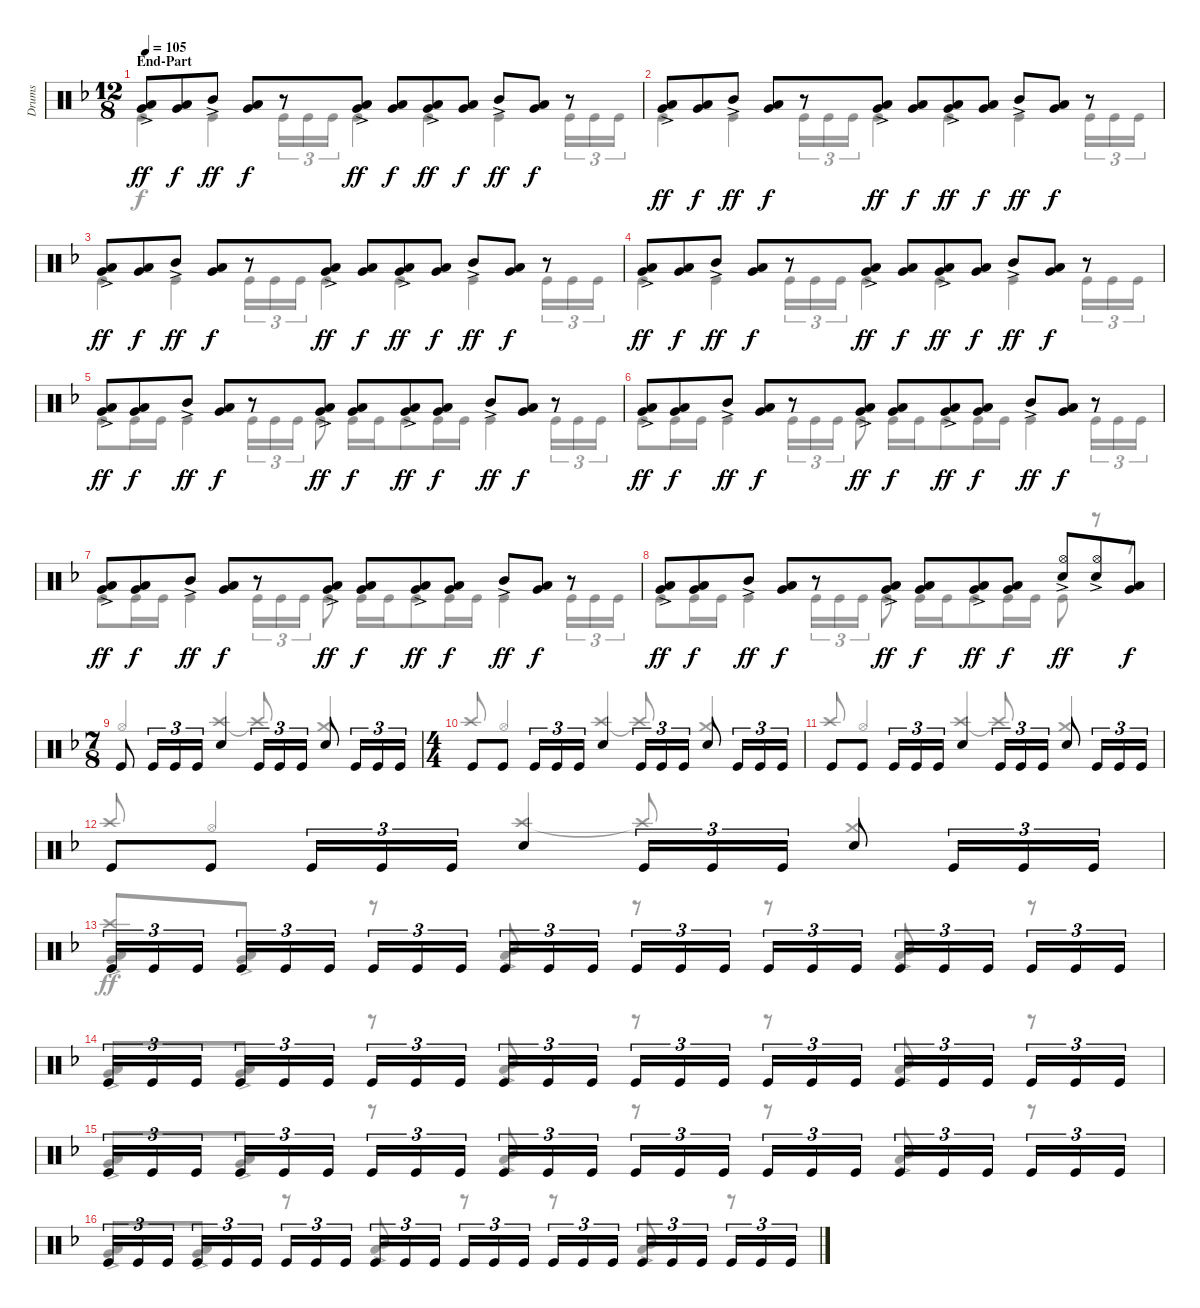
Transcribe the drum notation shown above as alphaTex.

\track ("Drums" "Drums") {instrument percussion}
\staff {score}
\articulation defaults
\voice
\ts (12 8)
\section ("" "End-Part")
\tempo 105
\clef neutral
\ks dminor
("Low Tom (hit)"{ac} "Very Low Tom (hit)").8{dy ff volume 8} ("Low Tom (hit)" "Very Low Tom (hit)").8{dy f} "Mid Tom (hit)"{ac}.8{dy ff} ("Very Low Tom (hit)" "Low Tom (hit)").8{dy f} r.8 ("Low Tom (hit)" "Very Low Tom (hit)"{ac}).8{dy ff} ("Low Tom (hit)" "Very Low Tom (hit)").8{dy f} ("Low Tom (hit)" "Very Low Tom (hit)"{ac}).8{dy ff} ("Low Tom (hit)" "Very Low Tom (hit)").8{dy f} "Mid Tom (hit)"{ac}.8{dy ff} ("Low Tom (hit)" "Very Low Tom (hit)").8{dy f} r.8 |
("Low Tom (hit)" "Very Low Tom (hit)"{ac}).8{dy ff} ("Low Tom (hit)" "Very Low Tom (hit)").8{dy f} "Mid Tom (hit)"{ac}.8{dy ff} ("Very Low Tom (hit)" "Low Tom (hit)").8{dy f} r.8 ("Low Tom (hit)" "Very Low Tom (hit)"{ac}).8{dy ff} ("Low Tom (hit)" "Very Low Tom (hit)").8{dy f} ("Low Tom (hit)" "Very Low Tom (hit)"{ac}).8{dy ff} ("Low Tom (hit)" "Very Low Tom (hit)").8{dy f} "Mid Tom (hit)"{ac}.8{dy ff} ("Low Tom (hit)" "Very Low Tom (hit)").8{dy f} r.8 |
("Low Tom (hit)" "Very Low Tom (hit)"{ac}).8{dy ff volume 13} ("Low Tom (hit)" "Very Low Tom (hit)").8{dy f} "Mid Tom (hit)"{ac}.8{dy ff} ("Very Low Tom (hit)" "Low Tom (hit)").8{dy f} r.8 ("Low Tom (hit)" "Very Low Tom (hit)"{ac}).8{dy ff} ("Low Tom (hit)" "Very Low Tom (hit)").8{dy f} ("Low Tom (hit)" "Very Low Tom (hit)"{ac}).8{dy ff} ("Low Tom (hit)" "Very Low Tom (hit)").8{dy f} "Mid Tom (hit)"{ac}.8{dy ff} ("Low Tom (hit)" "Very Low Tom (hit)").8{dy f} r.8 |
("Low Tom (hit)" "Very Low Tom (hit)"{ac}).8{dy ff} ("Low Tom (hit)" "Very Low Tom (hit)").8{dy f} "Mid Tom (hit)"{ac}.8{dy ff} ("Very Low Tom (hit)" "Low Tom (hit)").8{dy f} r.8 ("Low Tom (hit)" "Very Low Tom (hit)"{ac}).8{dy ff} ("Low Tom (hit)" "Very Low Tom (hit)").8{dy f} ("Low Tom (hit)" "Very Low Tom (hit)"{ac}).8{dy ff} ("Low Tom (hit)" "Very Low Tom (hit)").8{dy f} "Mid Tom (hit)"{ac}.8{dy ff} ("Low Tom (hit)" "Very Low Tom (hit)").8{dy f} r.8 |
("Low Tom (hit)" "Very Low Tom (hit)"{ac}).8{dy ff} ("Low Tom (hit)" "Very Low Tom (hit)").8{dy f} "Mid Tom (hit)"{ac}.8{dy ff} ("Very Low Tom (hit)" "Low Tom (hit)").8{dy f} r.8 ("Low Tom (hit)" "Very Low Tom (hit)"{ac}).8{dy ff} ("Low Tom (hit)" "Very Low Tom (hit)").8{dy f} ("Low Tom (hit)" "Very Low Tom (hit)"{ac}).8{dy ff} ("Low Tom (hit)" "Very Low Tom (hit)").8{dy f} "Mid Tom (hit)"{ac}.8{dy ff} ("Low Tom (hit)" "Very Low Tom (hit)").8{dy f} r.8 |
("Low Tom (hit)" "Very Low Tom (hit)"{ac}).8{dy ff} ("Low Tom (hit)" "Very Low Tom (hit)").8{dy f} "Mid Tom (hit)"{ac}.8{dy ff} ("Very Low Tom (hit)" "Low Tom (hit)").8{dy f} r.8 ("Low Tom (hit)" "Very Low Tom (hit)"{ac}).8{dy ff} ("Low Tom (hit)" "Very Low Tom (hit)").8{dy f} ("Low Tom (hit)" "Very Low Tom (hit)"{ac}).8{dy ff} ("Low Tom (hit)" "Very Low Tom (hit)").8{dy f} "Mid Tom (hit)"{ac}.8{dy ff} ("Low Tom (hit)" "Very Low Tom (hit)").8{dy f} r.8 |
("Low Tom (hit)" "Very Low Tom (hit)"{ac}).8{dy ff volume 16} ("Low Tom (hit)" "Very Low Tom (hit)").8{dy f} "Mid Tom (hit)"{ac}.8{dy ff} ("Very Low Tom (hit)" "Low Tom (hit)").8{dy f} r.8 ("Low Tom (hit)" "Very Low Tom (hit)"{ac}).8{dy ff} ("Low Tom (hit)" "Very Low Tom (hit)").8{dy f} ("Low Tom (hit)" "Very Low Tom (hit)"{ac}).8{dy ff} ("Low Tom (hit)" "Very Low Tom (hit)").8{dy f} "Mid Tom (hit)"{ac}.8{dy ff} ("Low Tom (hit)" "Very Low Tom (hit)").8{dy f} r.8 |
("Low Tom (hit)" "Very Low Tom (hit)"{ac}).8{dy ff} ("Low Tom (hit)" "Very Low Tom (hit)").8{dy f} "Mid Tom (hit)"{ac}.8{dy ff} ("Very Low Tom (hit)" "Low Tom (hit)").8{dy f} r.8 ("Low Tom (hit)" "Very Low Tom (hit)"{ac}).8{dy ff} ("Low Tom (hit)" "Very Low Tom (hit)").8{dy f} ("Low Tom (hit)" "Very Low Tom (hit)"{ac}).8{dy ff} ("Low Tom (hit)" "Very Low Tom (hit)").8{dy f} ("Snare (hit) 2" "Hi-Hat (open)"{ac}).8{dy ff} ("Snare (hit) 2" "Hi-Hat (open)"{ac}).8 ("Low Tom (hit)" "Very Low Tom (hit)").8{dy f} |
\ts (7 8)
"Kick (hit)".8 "Kick (hit)".16{tu (3 2)} "Kick (hit)".16{tu (3 2)} "Kick (hit)".16{tu (3 2)} "Snare (hit) 2".4 "Kick (hit)".16{tu (3 2)} "Kick (hit)".16{tu (3 2)} "Kick (hit)".16{tu (3 2)} "Snare (hit) 2".8 "Kick (hit)".16{tu (3 2)} "Kick (hit)".16{tu (3 2)} "Kick (hit)".16{tu (3 2)} |
\ts (4 4)
"Kick (hit)".8 "Kick (hit)".8 "Kick (hit)".16{tu (3 2)} "Kick (hit)".16{tu (3 2)} "Kick (hit)".16{tu (3 2)} "Snare (hit) 2".4 "Kick (hit)".16{tu (3 2)} "Kick (hit)".16{tu (3 2)} "Kick (hit)".16{tu (3 2)} "Snare (hit) 2".8 "Kick (hit)".16{tu (3 2)} "Kick (hit)".16{tu (3 2)} "Kick (hit)".16{tu (3 2)} |
"Kick (hit)".8 "Kick (hit)".8 "Kick (hit)".16{tu (3 2)} "Kick (hit)".16{tu (3 2)} "Kick (hit)".16{tu (3 2)} "Snare (hit) 2".4 "Kick (hit)".16{tu (3 2)} "Kick (hit)".16{tu (3 2)} "Kick (hit)".16{tu (3 2)} "Snare (hit) 2".8 "Kick (hit)".16{tu (3 2)} "Kick (hit)".16{tu (3 2)} "Kick (hit)".16{tu (3 2)} |
"Kick (hit)".8 "Kick (hit)".8 "Kick (hit)".16{tu (3 2)} "Kick (hit)".16{tu (3 2)} "Kick (hit)".16{tu (3 2)} "Snare (hit) 2".4 "Kick (hit)".16{tu (3 2)} "Kick (hit)".16{tu (3 2)} "Kick (hit)".16{tu (3 2)} "Snare (hit) 2".8 "Kick (hit)".16{tu (3 2)} "Kick (hit)".16{tu (3 2)} "Kick (hit)".16{tu (3 2)} |
"Kick (hit)".16{tu (3 2)} "Kick (hit)".16{tu (3 2)} "Kick (hit)".16{tu (3 2) beam splitsecondary} "Kick (hit)".16{tu (3 2)} "Kick (hit)".16{tu (3 2)} "Kick (hit)".16{tu (3 2)} "Kick (hit)".16{tu (3 2)} "Kick (hit)".16{tu (3 2)} "Kick (hit)".16{tu (3 2) beam splitsecondary} "Kick (hit)".16{tu (3 2)} "Kick (hit)".16{tu (3 2)} "Kick (hit)".16{tu (3 2)} "Kick (hit)".16{tu (3 2)} "Kick (hit)".16{tu (3 2)} "Kick (hit)".16{tu (3 2) beam splitsecondary} "Kick (hit)".16{tu (3 2)} "Kick (hit)".16{tu (3 2)} "Kick (hit)".16{tu (3 2)} "Kick (hit)".16{tu (3 2)} "Kick (hit)".16{tu (3 2)} "Kick (hit)".16{tu (3 2) beam splitsecondary} "Kick (hit)".16{tu (3 2)} "Kick (hit)".16{tu (3 2)} "Kick (hit)".16{tu (3 2)} |
"Kick (hit)".16{tu (3 2)} "Kick (hit)".16{tu (3 2)} "Kick (hit)".16{tu (3 2) beam splitsecondary} "Kick (hit)".16{tu (3 2)} "Kick (hit)".16{tu (3 2)} "Kick (hit)".16{tu (3 2)} "Kick (hit)".16{tu (3 2)} "Kick (hit)".16{tu (3 2)} "Kick (hit)".16{tu (3 2) beam splitsecondary} "Kick (hit)".16{tu (3 2)} "Kick (hit)".16{tu (3 2)} "Kick (hit)".16{tu (3 2)} "Kick (hit)".16{tu (3 2)} "Kick (hit)".16{tu (3 2)} "Kick (hit)".16{tu (3 2) beam splitsecondary} "Kick (hit)".16{tu (3 2)} "Kick (hit)".16{tu (3 2)} "Kick (hit)".16{tu (3 2)} "Kick (hit)".16{tu (3 2)} "Kick (hit)".16{tu (3 2)} "Kick (hit)".16{tu (3 2) beam splitsecondary} "Kick (hit)".16{tu (3 2)} "Kick (hit)".16{tu (3 2)} "Kick (hit)".16{tu (3 2)} |
"Kick (hit)".16{tu (3 2)} "Kick (hit)".16{tu (3 2)} "Kick (hit)".16{tu (3 2) beam splitsecondary} "Kick (hit)".16{tu (3 2)} "Kick (hit)".16{tu (3 2)} "Kick (hit)".16{tu (3 2)} "Kick (hit)".16{tu (3 2)} "Kick (hit)".16{tu (3 2)} "Kick (hit)".16{tu (3 2) beam splitsecondary} "Kick (hit)".16{tu (3 2)} "Kick (hit)".16{tu (3 2)} "Kick (hit)".16{tu (3 2)} "Kick (hit)".16{tu (3 2)} "Kick (hit)".16{tu (3 2)} "Kick (hit)".16{tu (3 2) beam splitsecondary} "Kick (hit)".16{tu (3 2)} "Kick (hit)".16{tu (3 2)} "Kick (hit)".16{tu (3 2)} "Kick (hit)".16{tu (3 2)} "Kick (hit)".16{tu (3 2)} "Kick (hit)".16{tu (3 2) beam splitsecondary} "Kick (hit)".16{tu (3 2)} "Kick (hit)".16{tu (3 2)} "Kick (hit)".16{tu (3 2)} |
"Kick (hit)".16{tu (3 2)} "Kick (hit)".16{tu (3 2)} "Kick (hit)".16{tu (3 2) beam splitsecondary} "Kick (hit)".16{tu (3 2)} "Kick (hit)".16{tu (3 2)} "Kick (hit)".16{tu (3 2)} "Kick (hit)".16{tu (3 2)} "Kick (hit)".16{tu (3 2)} "Kick (hit)".16{tu (3 2) beam splitsecondary} "Kick (hit)".16{tu (3 2)} "Kick (hit)".16{tu (3 2)} "Kick (hit)".16{tu (3 2)} "Kick (hit)".16{tu (3 2)} "Kick (hit)".16{tu (3 2)} "Kick (hit)".16{tu (3 2) beam splitsecondary} "Kick (hit)".16{tu (3 2)} "Kick (hit)".16{tu (3 2)} "Kick (hit)".16{tu (3 2)} "Kick (hit)".16{tu (3 2)} "Kick (hit)".16{tu (3 2)} "Kick (hit)".16{tu (3 2) beam splitsecondary} "Kick (hit)".16{tu (3 2)} "Kick (hit)".16{tu (3 2)} "Kick (hit)".16{tu (3 2)}
\voice
\clef neutral
\ottava regular
\simile none
\ks dminor "Kick (hit)".4{dy f} "Kick (hit)".4 "Kick (hit)".16{tu (3 2)} "Kick (hit)".16{tu (3 2)} "Kick (hit)".16{tu (3 2)} "Kick (hit)".4 "Kick (hit)".4 "Kick (hit)".4 "Kick (hit)".16{tu (3 2)} "Kick (hit)".16{tu (3 2)} "Kick (hit)".16{tu (3 2)}
|
"Kick (hit)".4 "Kick (hit)".4 "Kick (hit)".16{tu (3 2)} "Kick (hit)".16{tu (3 2)} "Kick (hit)".16{tu (3 2)} "Kick (hit)".4 "Kick (hit)".4 "Kick (hit)".4 "Kick (hit)".16{tu (3 2)} "Kick (hit)".16{tu (3 2)} "Kick (hit)".16{tu (3 2)} |
"Kick (hit)".4 "Kick (hit)".4 "Kick (hit)".16{tu (3 2)} "Kick (hit)".16{tu (3 2)} "Kick (hit)".16{tu (3 2)} "Kick (hit)".4 "Kick (hit)".4 "Kick (hit)".4 "Kick (hit)".16{tu (3 2)} "Kick (hit)".16{tu (3 2)} "Kick (hit)".16{tu (3 2)} |
"Kick (hit)".4 "Kick (hit)".4 "Kick (hit)".16{tu (3 2)} "Kick (hit)".16{tu (3 2)} "Kick (hit)".16{tu (3 2)} "Kick (hit)".4 "Kick (hit)".4 "Kick (hit)".4 "Kick (hit)".16{tu (3 2)} "Kick (hit)".16{tu (3 2)} "Kick (hit)".16{tu (3 2)} |
"Kick (hit)".8 "Kick (hit)".16 "Kick (hit)".16 "Kick (hit)".4 "Kick (hit)".16{tu (3 2)} "Kick (hit)".16{tu (3 2)} "Kick (hit)".16{tu (3 2)} "Kick (hit)".8 "Kick (hit)".16 "Kick (hit)".16 "Kick (hit)".8 "Kick (hit)".16 "Kick (hit)".16 "Kick (hit)".4 "Kick (hit)".16{tu (3 2)} "Kick (hit)".16{tu (3 2)} "Kick (hit)".16{tu (3 2)} |
"Kick (hit)".8 "Kick (hit)".16 "Kick (hit)".16 "Kick (hit)".4 "Kick (hit)".16{tu (3 2)} "Kick (hit)".16{tu (3 2)} "Kick (hit)".16{tu (3 2)} "Kick (hit)".8 "Kick (hit)".16 "Kick (hit)".16 "Kick (hit)".8 "Kick (hit)".16 "Kick (hit)".16 "Kick (hit)".4 "Kick (hit)".16{tu (3 2)} "Kick (hit)".16{tu (3 2)} "Kick (hit)".16{tu (3 2)} |
"Kick (hit)".8 "Kick (hit)".16 "Kick (hit)".16 "Kick (hit)".4 "Kick (hit)".16{tu (3 2)} "Kick (hit)".16{tu (3 2)} "Kick (hit)".16{tu (3 2)} "Kick (hit)".8 "Kick (hit)".16 "Kick (hit)".16 "Kick (hit)".8 "Kick (hit)".16 "Kick (hit)".16 "Kick (hit)".4 "Kick (hit)".16{tu (3 2)} "Kick (hit)".16{tu (3 2)} "Kick (hit)".16{tu (3 2)} |
"Kick (hit)".8 "Kick (hit)".16 "Kick (hit)".16 "Kick (hit)".4 "Kick (hit)".16{tu (3 2)} "Kick (hit)".16{tu (3 2)} "Kick (hit)".16{tu (3 2)} "Kick (hit)".8 "Kick (hit)".16 "Kick (hit)".16 "Kick (hit)".8 "Kick (hit)".16 "Kick (hit)".16 "Kick (hit)".8 r.8 r.8 |
"Hi-Hat (open)".4{beam Up} "Crash high (hit)".4{beam Up} "Crash high (hit)"{t}.8{beam Up} "Crash medium (hit)".4{beam Up} |
"Crash high (hit)".8{beam Up} "Hi-Hat (open)".4{beam Up} "Crash high (hit)".4{beam Up} "Crash high (hit)"{t}.8{beam Up} "Crash medium (hit)".4{beam Up} |
"Crash high (hit)".8{beam Up} "Hi-Hat (open)".4{beam Up} "Crash high (hit)".4{beam Up} "Crash high (hit)"{t}.8{beam Up} "Crash medium (hit)".4{beam Up} |
"Crash high (hit)".8{beam Up} "Hi-Hat (open)".4{beam Up} "Crash high (hit)".4{beam Up} "Crash high (hit)"{t}.8{beam Up} "Crash medium (hit)".4{beam Up} |
("Crash high (hit)" "Low Tom (hit)"{ac} "Very Low Tom (hit)").8{dy ff beam Up} ("Low Tom (hit)"{ac} "Very Low Tom (hit)").8{beam Up} r.8 ("Mid Tom (hit)" "Low Tom (hit)"{ac}).8{beam Up} r.8 r.8 ("Mid Tom (hit)" "Low Tom (hit)"{ac}).8{beam Up} r.8 |
("Low Tom (hit)"{ac} "Very Low Tom (hit)").8{beam Up} ("Low Tom (hit)"{ac} "Very Low Tom (hit)").8{beam Up} r.8 ("Mid Tom (hit)" "Low Tom (hit)"{ac}).8{beam Up} r.8 r.8 ("Mid Tom (hit)" "Low Tom (hit)"{ac}).8{beam Up} r.8 |
("Low Tom (hit)"{ac} "Very Low Tom (hit)").8{beam Up} ("Low Tom (hit)"{ac} "Very Low Tom (hit)").8{beam Up} r.8 ("Mid Tom (hit)" "Low Tom (hit)"{ac}).8{beam Up} r.8 r.8 ("Mid Tom (hit)" "Low Tom (hit)"{ac}).8{beam Up} r.8 |
("Low Tom (hit)"{ac} "Very Low Tom (hit)").8{beam Up} ("Low Tom (hit)"{ac} "Very Low Tom (hit)").8{beam Up} r.8 ("Mid Tom (hit)" "Low Tom (hit)"{ac}).8{beam Up} r.8 r.8 ("Mid Tom (hit)" "Low Tom (hit)"{ac}).8{beam Up} r.8
